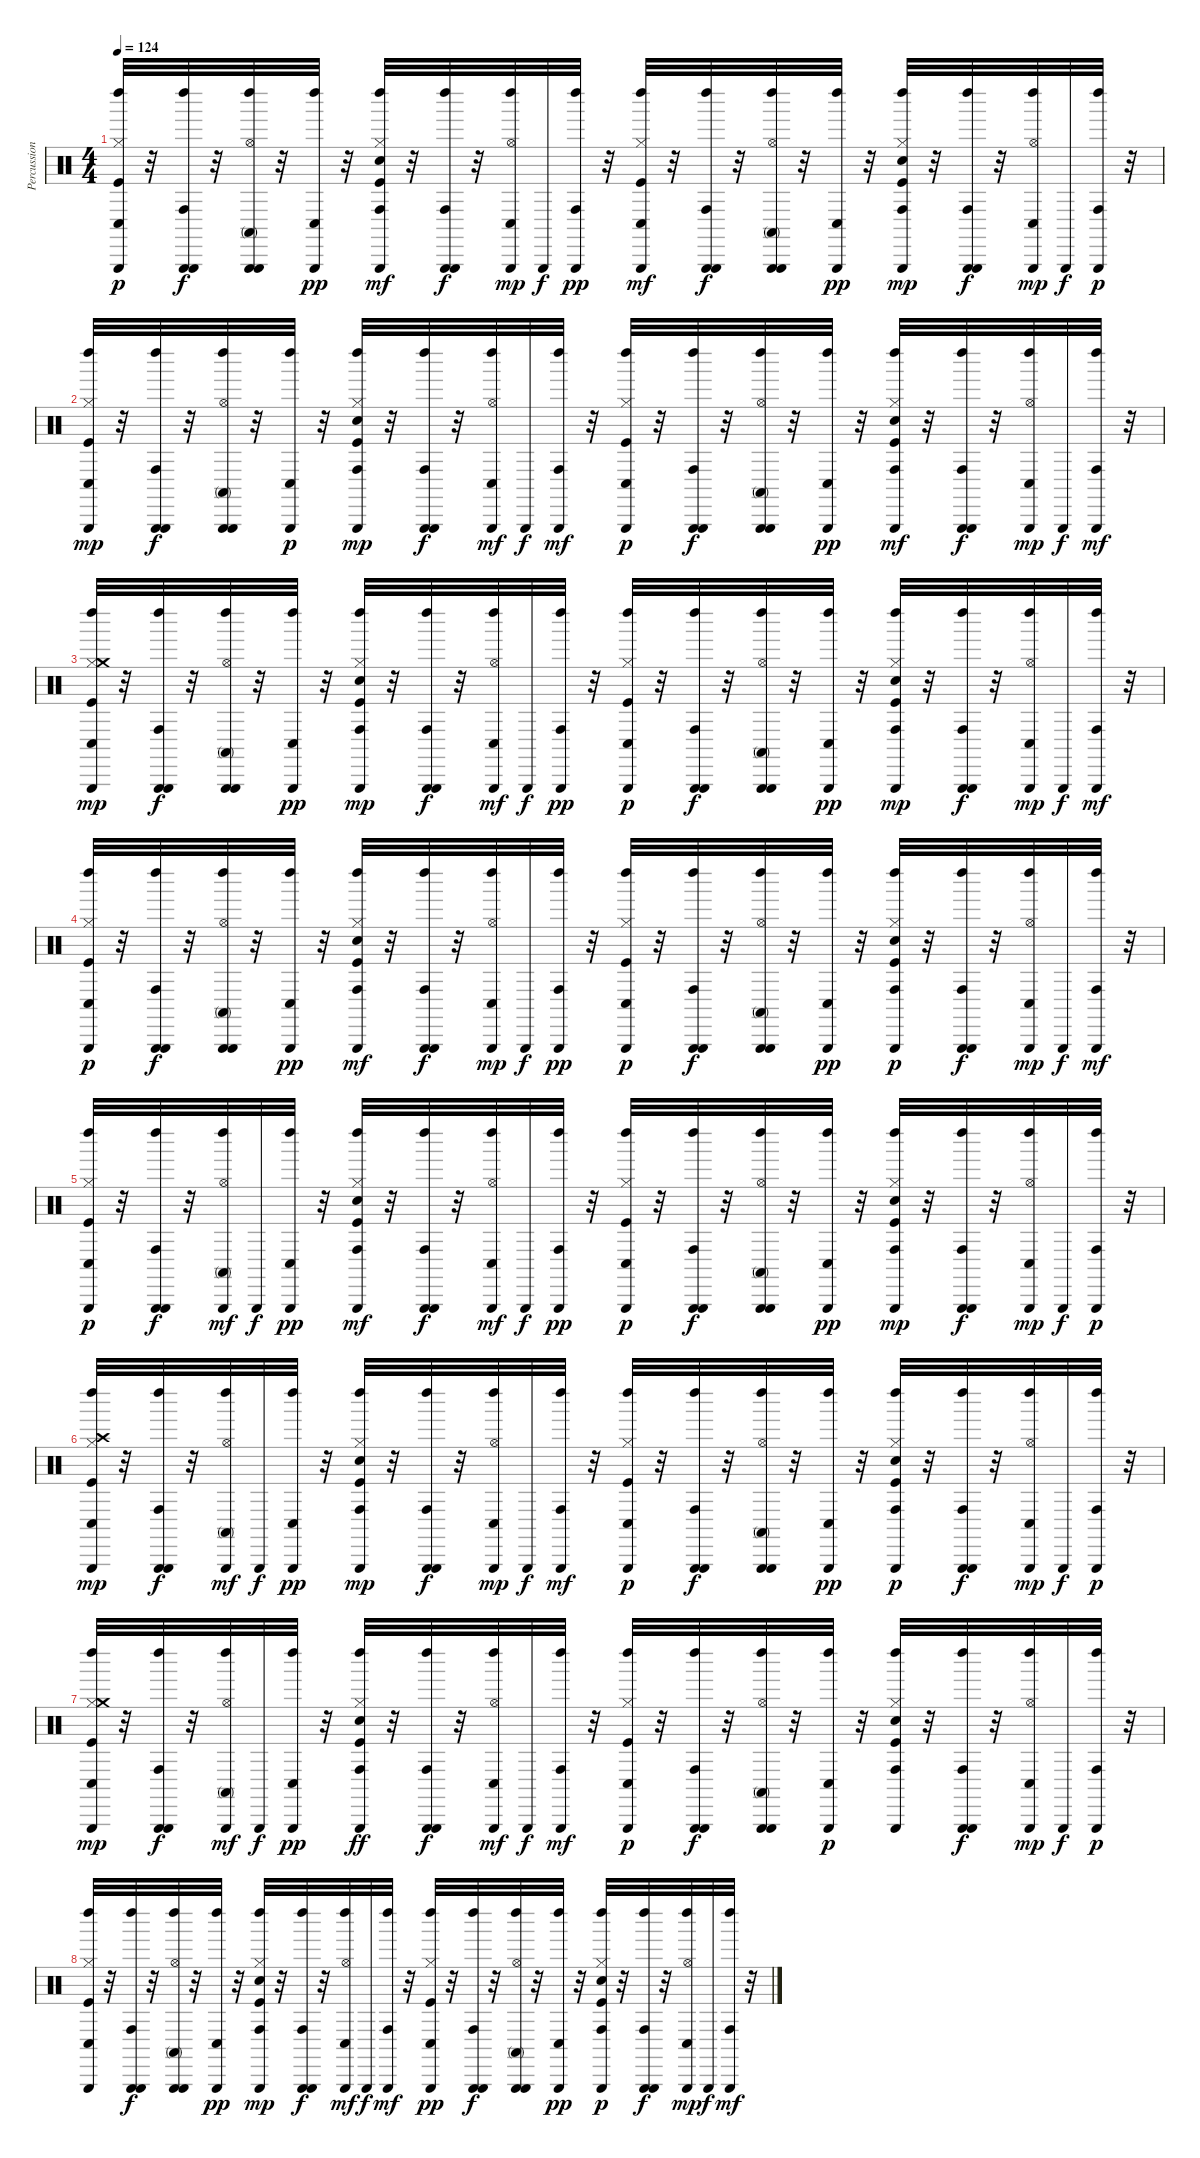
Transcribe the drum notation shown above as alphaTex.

\track ("Percussion" "Percussion") {instrument percussion}
\staff {score}
\articulation defaults
\ts (4 4)
\tempo 124
\clef neutral
\ks c
("Triangle (hit)" "Left Maraca (hit)" "Kick (hit)" "Hi-Hat (closed)" "Conga low (hit)").32{dy p} r.32 ("Triangle (hit)" "Conga high (hit)" "Left Maraca (hit)" "Triangle (hit)").32{dy f} r.32 ("Triangle (hit)" "Hi-Hat (open)" "Conga high (mute)" "Left Maraca (hit)" "Triangle (hit)").32 r.32 ("Triangle (hit)" "Conga low (hit)" "Left Maraca (hit)").32{dy pp} r.32 ("Triangle (hit)" "Kick (hit)" "Snare (hit) 2" "Left Maraca (hit)" "Hi-Hat (closed)" "Conga high (hit)").32{dy mf} r.32 ("Triangle (hit)" "Left Maraca (hit)" "Conga high (hit)" "Triangle (hit)").32{dy f} r.32 ("Triangle (hit)" "Conga low (hit)" "Left Maraca (hit)" "Hi-Hat (open)").32{dy mp} "Triangle (hit)".32{dy f} ("Triangle (hit)" "Conga high (hit)" "Left Maraca (hit)").32{dy pp} r.32 ("Triangle (hit)" "Conga low (hit)" "Left Maraca (hit)" "Kick (hit)" "Hi-Hat (closed)").32{dy mf} r.32 ("Triangle (hit)" "Conga high (hit)" "Left Maraca (hit)" "Triangle (hit)").32{dy f} r.32 ("Hi-Hat (open)" "Conga high (mute)" "Triangle (hit)" "Left Maraca (hit)" "Triangle (hit)").32 r.32 ("Triangle (hit)" "Conga low (hit)" "Left Maraca (hit)").32{dy pp} r.32 ("Triangle (hit)" "Kick (hit)" "Snare (hit) 2" "Left Maraca (hit)" "Hi-Hat (closed)" "Conga high (hit)").32{dy mp} r.32 ("Triangle (hit)" "Conga high (hit)" "Left Maraca (hit)" "Triangle (hit)").32{dy f} r.32 ("Triangle (hit)" "Hi-Hat (open)" "Conga low (hit)" "Left Maraca (hit)").32{dy mp} "Triangle (hit)".32{dy f} ("Triangle (hit)" "Conga high (hit)" "Left Maraca (hit)").32{dy p} r.32 |
("Triangle (hit)" "Conga low (hit)" "Kick (hit)" "Hi-Hat (closed)" "Left Maraca (hit)").32{dy mp} r.32 ("Conga high (hit)" "Triangle (hit)" "Left Maraca (hit)" "Triangle (hit)").32{dy f} r.32 ("Conga high (mute)" "Triangle (hit)" "Hi-Hat (open)" "Left Maraca (hit)" "Triangle (hit)").32 r.32 ("Left Maraca (hit)" "Triangle (hit)" "Conga low (hit)").32{dy p} r.32 ("Hi-Hat (closed)" "Triangle (hit)" "Kick (hit)" "Snare (hit) 2" "Conga high (hit)" "Left Maraca (hit)").32{dy mp} r.32 ("Triangle (hit)" "Left Maraca (hit)" "Conga high (hit)" "Triangle (hit)").32{dy f} r.32 ("Triangle (hit)" "Hi-Hat (open)" "Conga low (hit)" "Left Maraca (hit)").32{dy mf} "Triangle (hit)".32{dy f} ("Triangle (hit)" "Left Maraca (hit)" "Conga high (hit)").32{dy mf} r.32 ("Hi-Hat (closed)" "Conga low (hit)" "Triangle (hit)" "Kick (hit)" "Left Maraca (hit)").32{dy p} r.32 ("Triangle (hit)" "Conga high (hit)" "Left Maraca (hit)" "Triangle (hit)").32{dy f} r.32 ("Triangle (hit)" "Left Maraca (hit)" "Hi-Hat (open)" "Conga high (mute)" "Triangle (hit)").32 r.32 ("Triangle (hit)" "Conga low (hit)" "Left Maraca (hit)").32{dy pp} r.32 ("Hi-Hat (closed)" "Left Maraca (hit)" "Triangle (hit)" "Kick (hit)" "Snare (hit) 2" "Conga high (hit)").32{dy mf} r.32 ("Triangle (hit)" "Left Maraca (hit)" "Conga high (hit)" "Triangle (hit)").32{dy f} r.32 ("Hi-Hat (open)" "Triangle (hit)" "Conga low (hit)" "Left Maraca (hit)").32{dy mp} "Triangle (hit)".32{dy f} ("Triangle (hit)" "Left Maraca (hit)" "Conga high (hit)").32{dy mf} r.32 |
("Triangle (hit)" "Kick (hit)" "Hi-Hat (closed)" "Crash medium (hit)" "Conga low (hit)" "Left Maraca (hit)").32{dy mp} r.32 ("Triangle (hit)" "Left Maraca (hit)" "Conga high (hit)" "Triangle (hit)").32{dy f} r.32 ("Triangle (hit)" "Hi-Hat (open)" "Conga high (mute)" "Left Maraca (hit)" "Triangle (hit)").32 r.32 ("Triangle (hit)" "Conga low (hit)" "Left Maraca (hit)").32{dy pp} r.32 ("Triangle (hit)" "Hi-Hat (closed)" "Kick (hit)" "Snare (hit) 2" "Conga high (hit)" "Left Maraca (hit)").32{dy mp} r.32 ("Triangle (hit)" "Conga high (hit)" "Left Maraca (hit)" "Triangle (hit)").32{dy f} r.32 ("Triangle (hit)" "Hi-Hat (open)" "Conga low (hit)" "Left Maraca (hit)").32{dy mf} "Triangle (hit)".32{dy f} ("Triangle (hit)" "Conga high (hit)" "Left Maraca (hit)").32{dy pp} r.32 ("Triangle (hit)" "Hi-Hat (closed)" "Kick (hit)" "Conga low (hit)" "Left Maraca (hit)").32{dy p} r.32 ("Triangle (hit)" "Left Maraca (hit)" "Conga high (hit)" "Triangle (hit)").32{dy f} r.32 ("Hi-Hat (open)" "Triangle (hit)" "Conga high (mute)" "Left Maraca (hit)" "Triangle (hit)").32 r.32 ("Triangle (hit)" "Conga low (hit)" "Left Maraca (hit)").32{dy pp} r.32 ("Triangle (hit)" "Kick (hit)" "Snare (hit) 2" "Left Maraca (hit)" "Hi-Hat (closed)" "Conga high (hit)").32{dy mp} r.32 ("Triangle (hit)" "Left Maraca (hit)" "Conga high (hit)" "Triangle (hit)").32{dy f} r.32 ("Triangle (hit)" "Hi-Hat (open)" "Conga low (hit)" "Left Maraca (hit)").32{dy mp} "Triangle (hit)".32{dy f} ("Triangle (hit)" "Left Maraca (hit)" "Conga high (hit)").32{dy mf} r.32 |
("Triangle (hit)" "Kick (hit)" "Hi-Hat (closed)" "Left Maraca (hit)" "Conga low (hit)").32{dy p} r.32 ("Triangle (hit)" "Conga high (hit)" "Left Maraca (hit)" "Triangle (hit)").32{dy f} r.32 ("Triangle (hit)" "Hi-Hat (open)" "Conga high (mute)" "Left Maraca (hit)" "Triangle (hit)").32 r.32 ("Triangle (hit)" "Conga low (hit)" "Left Maraca (hit)").32{dy pp} r.32 ("Conga high (hit)" "Left Maraca (hit)" "Triangle (hit)" "Kick (hit)" "Snare (hit) 2" "Hi-Hat (closed)").32{dy mf} r.32 ("Triangle (hit)" "Conga high (hit)" "Left Maraca (hit)" "Triangle (hit)").32{dy f} r.32 ("Left Maraca (hit)" "Triangle (hit)" "Conga low (hit)" "Hi-Hat (open)").32{dy mp} "Triangle (hit)".32{dy f} ("Triangle (hit)" "Conga high (hit)" "Left Maraca (hit)").32{dy pp} r.32 ("Triangle (hit)" "Hi-Hat (closed)" "Kick (hit)" "Conga low (hit)" "Left Maraca (hit)").32{dy p} r.32 ("Triangle (hit)" "Conga high (hit)" "Left Maraca (hit)" "Triangle (hit)").32{dy f} r.32 ("Triangle (hit)" "Hi-Hat (open)" "Conga high (mute)" "Left Maraca (hit)" "Triangle (hit)").32 r.32 ("Triangle (hit)" "Conga low (hit)" "Left Maraca (hit)").32{dy pp} r.32 ("Hi-Hat (closed)" "Triangle (hit)" "Kick (hit)" "Snare (hit) 2" "Conga high (hit)" "Left Maraca (hit)").32{dy p} r.32 ("Triangle (hit)" "Conga high (hit)" "Left Maraca (hit)" "Triangle (hit)").32{dy f} r.32 ("Triangle (hit)" "Hi-Hat (open)" "Conga low (hit)" "Left Maraca (hit)").32{dy mp} "Triangle (hit)".32{dy f} ("Left Maraca (hit)" "Triangle (hit)" "Conga high (hit)").32{dy mf} r.32 |
("Left Maraca (hit)" "Triangle (hit)" "Kick (hit)" "Hi-Hat (closed)" "Conga low (hit)").32{dy p} r.32 ("Triangle (hit)" "Conga high (hit)" "Left Maraca (hit)" "Triangle (hit)").32{dy f} r.32 ("Conga high (mute)" "Triangle (hit)" "Hi-Hat (open)" "Left Maraca (hit)").32{dy mf} "Triangle (hit)".32{dy f} ("Triangle (hit)" "Conga low (hit)" "Left Maraca (hit)").32{dy pp} r.32 ("Left Maraca (hit)" "Triangle (hit)" "Kick (hit)" "Snare (hit) 2" "Hi-Hat (closed)" "Conga high (hit)").32{dy mf} r.32 ("Triangle (hit)" "Conga high (hit)" "Left Maraca (hit)" "Triangle (hit)").32{dy f} r.32 ("Triangle (hit)" "Hi-Hat (open)" "Left Maraca (hit)" "Conga low (hit)").32{dy mf} "Triangle (hit)".32{dy f} ("Triangle (hit)" "Conga high (hit)" "Left Maraca (hit)").32{dy pp} r.32 ("Triangle (hit)" "Kick (hit)" "Left Maraca (hit)" "Hi-Hat (closed)" "Conga low (hit)").32{dy p} r.32 ("Triangle (hit)" "Conga high (hit)" "Left Maraca (hit)" "Triangle (hit)").32{dy f} r.32 ("Triangle (hit)" "Conga high (mute)" "Hi-Hat (open)" "Left Maraca (hit)" "Triangle (hit)").32 r.32 ("Triangle (hit)" "Conga low (hit)" "Left Maraca (hit)").32{dy pp} r.32 ("Hi-Hat (closed)" "Triangle (hit)" "Kick (hit)" "Snare (hit) 2" "Left Maraca (hit)" "Conga high (hit)").32{dy mp} r.32 ("Conga high (hit)" "Left Maraca (hit)" "Triangle (hit)" "Triangle (hit)").32{dy f} r.32 ("Hi-Hat (open)" "Triangle (hit)" "Conga low (hit)" "Left Maraca (hit)").32{dy mp} "Triangle (hit)".32{dy f} ("Triangle (hit)" "Conga high (hit)" "Left Maraca (hit)").32{dy p} r.32 |
("Hi-Hat (closed)" "Triangle (hit)" "Kick (hit)" "Crash high (hit)" "Conga low (hit)" "Left Maraca (hit)").32{dy mp} r.32 ("Triangle (hit)" "Left Maraca (hit)" "Conga high (hit)" "Triangle (hit)").32{dy f} r.32 ("Triangle (hit)" "Hi-Hat (open)" "Left Maraca (hit)" "Conga high (mute)").32{dy mf} "Triangle (hit)".32{dy f} ("Conga low (hit)" "Triangle (hit)" "Left Maraca (hit)").32{dy pp} r.32 ("Triangle (hit)" "Kick (hit)" "Snare (hit) 2" "Hi-Hat (closed)" "Conga high (hit)" "Left Maraca (hit)").32{dy mp} r.32 ("Triangle (hit)" "Conga high (hit)" "Left Maraca (hit)" "Triangle (hit)").32{dy f} r.32 ("Conga low (hit)" "Left Maraca (hit)" "Triangle (hit)" "Hi-Hat (open)").32{dy mp} "Triangle (hit)".32{dy f} ("Triangle (hit)" "Left Maraca (hit)" "Conga high (hit)").32{dy mf} r.32 ("Triangle (hit)" "Kick (hit)" "Hi-Hat (closed)" "Conga low (hit)" "Left Maraca (hit)").32{dy p} r.32 ("Triangle (hit)" "Conga high (hit)" "Left Maraca (hit)" "Triangle (hit)").32{dy f} r.32 ("Triangle (hit)" "Hi-Hat (open)" "Left Maraca (hit)" "Conga high (mute)" "Triangle (hit)").32 r.32 ("Triangle (hit)" "Conga low (hit)" "Left Maraca (hit)").32{dy pp} r.32 ("Triangle (hit)" "Kick (hit)" "Snare (hit) 2" "Hi-Hat (closed)" "Conga high (hit)" "Left Maraca (hit)").32{dy p} r.32 ("Triangle (hit)" "Left Maraca (hit)" "Conga high (hit)" "Triangle (hit)").32{dy f} r.32 ("Triangle (hit)" "Hi-Hat (open)" "Conga low (hit)" "Left Maraca (hit)").32{dy mp} "Triangle (hit)".32{dy f} ("Triangle (hit)" "Conga high (hit)" "Left Maraca (hit)").32{dy p} r.32 |
("Triangle (hit)" "Hi-Hat (closed)" "Kick (hit)" "Crash medium (hit)" "Conga low (hit)" "Left Maraca (hit)").32{dy mp} r.32 ("Triangle (hit)" "Conga high (hit)" "Left Maraca (hit)" "Triangle (hit)").32{dy f} r.32 ("Triangle (hit)" "Left Maraca (hit)" "Hi-Hat (open)" "Conga high (mute)").32{dy mf} "Triangle (hit)".32{dy f} ("Conga low (hit)" "Triangle (hit)" "Left Maraca (hit)").32{dy pp} r.32 ("Hi-Hat (closed)" "Conga high (hit)" "Left Maraca (hit)" "Triangle (hit)" "Kick (hit)" "Snare (hit) 2").32{dy ff} r.32 ("Left Maraca (hit)" "Triangle (hit)" "Conga high (hit)" "Triangle (hit)").32{dy f} r.32 ("Triangle (hit)" "Hi-Hat (open)" "Conga low (hit)" "Left Maraca (hit)").32{dy mf} "Triangle (hit)".32{dy f} ("Triangle (hit)" "Left Maraca (hit)" "Conga high (hit)").32{dy mf} r.32 ("Triangle (hit)" "Hi-Hat (closed)" "Kick (hit)" "Left Maraca (hit)" "Conga low (hit)").32{dy p} r.32 ("Triangle (hit)" "Conga high (hit)" "Left Maraca (hit)" "Triangle (hit)").32{dy f} r.32 ("Hi-Hat (open)" "Triangle (hit)" "Conga high (mute)" "Left Maraca (hit)" "Triangle (hit)").32 r.32 ("Triangle (hit)" "Left Maraca (hit)" "Conga low (hit)").32{dy p} r.32 ("Hi-Hat (closed)" "Triangle (hit)" "Kick (hit)" "Snare (hit) 2" "Conga high (hit)" "Left Maraca (hit)").32 r.32 ("Conga high (hit)" "Triangle (hit)" "Left Maraca (hit)" "Triangle (hit)").32{dy f} r.32 ("Triangle (hit)" "Left Maraca (hit)" "Hi-Hat (open)" "Conga low (hit)").32{dy mp} "Triangle (hit)".32{dy f} ("Triangle (hit)" "Conga high (hit)" "Left Maraca (hit)").32{dy p} r.32 |
("Hi-Hat (closed)" "Left Maraca (hit)" "Triangle (hit)" "Kick (hit)" "Conga low (hit)").32 r.32 ("Triangle (hit)" "Conga high (hit)" "Left Maraca (hit)" "Triangle (hit)").32{dy f} r.32 ("Triangle (hit)" "Hi-Hat (open)" "Conga high (mute)" "Left Maraca (hit)" "Triangle (hit)").32 r.32 ("Conga low (hit)" "Triangle (hit)" "Left Maraca (hit)").32{dy pp} r.32 ("Triangle (hit)" "Kick (hit)" "Snare (hit) 2" "Hi-Hat (closed)" "Conga high (hit)" "Left Maraca (hit)").32{dy mp} r.32 ("Triangle (hit)" "Left Maraca (hit)" "Conga high (hit)" "Triangle (hit)").32{dy f} r.32 ("Triangle (hit)" "Conga low (hit)" "Hi-Hat (open)" "Left Maraca (hit)").32{dy mf} "Triangle (hit)".32{dy f} ("Triangle (hit)" "Left Maraca (hit)" "Conga high (hit)").32{dy mf} r.32 ("Triangle (hit)" "Kick (hit)" "Left Maraca (hit)" "Hi-Hat (closed)" "Conga low (hit)").32{dy pp} r.32 ("Conga high (hit)" "Triangle (hit)" "Left Maraca (hit)" "Triangle (hit)").32{dy f} r.32 ("Hi-Hat (open)" "Conga high (mute)" "Left Maraca (hit)" "Triangle (hit)" "Triangle (hit)").32 r.32 ("Triangle (hit)" "Conga low (hit)" "Left Maraca (hit)").32{dy pp} r.32 ("Triangle (hit)" "Kick (hit)" "Snare (hit) 2" "Hi-Hat (closed)" "Conga high (hit)" "Left Maraca (hit)").32{dy p} r.32 ("Triangle (hit)" "Conga high (hit)" "Left Maraca (hit)" "Triangle (hit)").32{dy f} r.32 ("Hi-Hat (open)" "Triangle (hit)" "Conga low (hit)" "Left Maraca (hit)").32{dy mp} "Triangle (hit)".32{dy f} ("Triangle (hit)" "Left Maraca (hit)" "Conga high (hit)").32{dy mf} r.32
